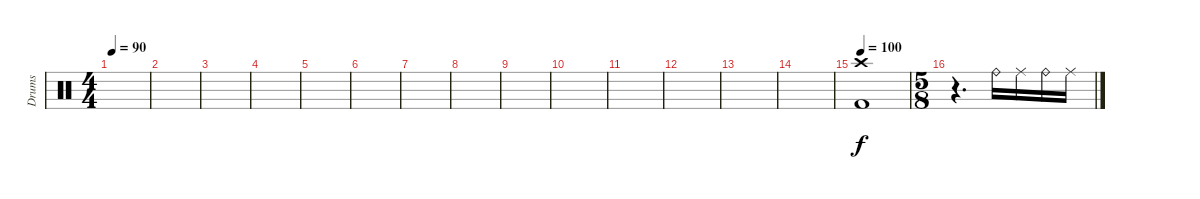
\track ("Drums" "Drums") {instrument percussion}
\staff {score}
\articulation defaults
\ts (4 4)
\tempo 90
\clef neutral
\ks c
|
|
|
|
|
|
|
|
|
|
|
|
|
|
\tempo 100
("Kick (hit) 2" "Crash high (hit)").1 |
\ts (5 8)
r.4{d} "Ride (bell)".16 "Ride (middle)".16 "Ride (bell)".16 "Ride (middle)".16
